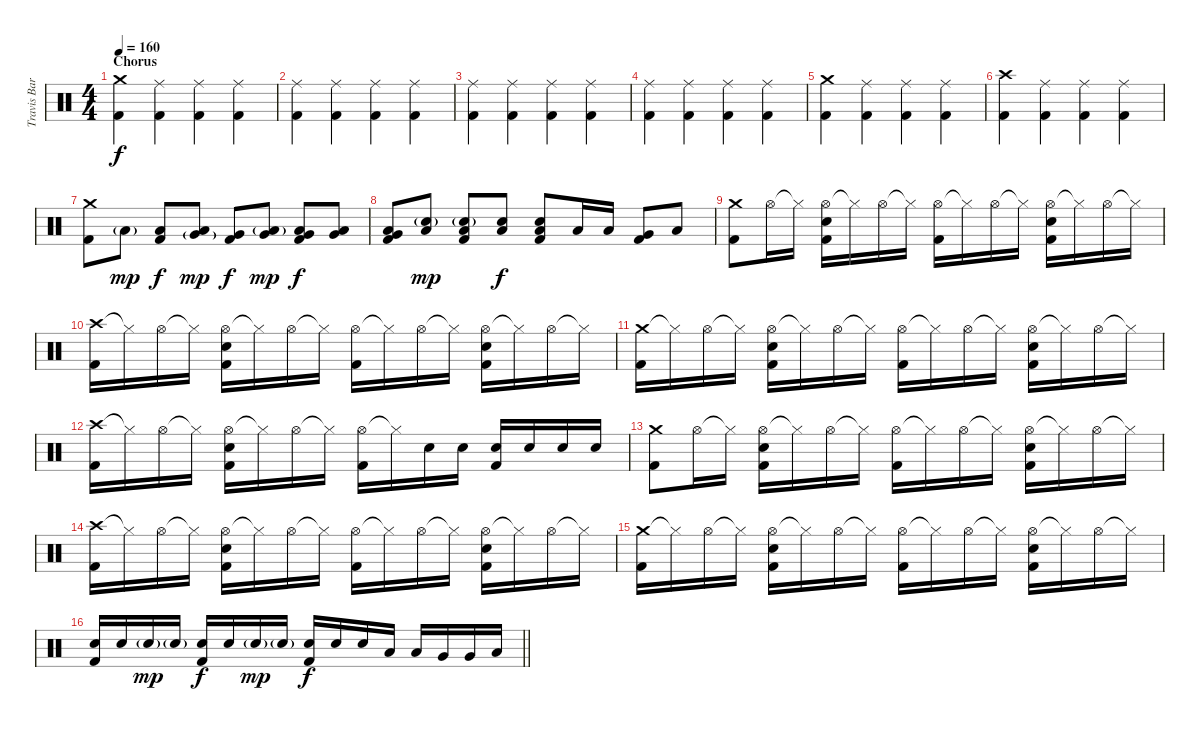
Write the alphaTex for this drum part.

\track ("Travis Barker - Drums" "Travis Bar") {instrument percussion}
\staff {score}
\articulation defaults
\ts (4 4)
\section ("" "Chorus")
\tempo 160
\clef neutral
\ks c
("Crash medium (hit)" "Kick (hit) 2").4{dy f} ("Ride (middle)" "Kick (hit) 2").4 ("Ride (middle)" "Kick (hit) 2").4 ("Ride (middle)" "Kick (hit) 2").4 |
("Ride (middle)" "Kick (hit) 2").4 ("Ride (middle)" "Kick (hit) 2").4 ("Ride (middle)" "Kick (hit) 2").4 ("Ride (middle)" "Kick (hit) 2").4 |
("Ride (middle)" "Kick (hit) 2").4 ("Ride (middle)" "Kick (hit) 2").4 ("Ride (middle)" "Kick (hit) 2").4 ("Ride (middle)" "Kick (hit) 2").4 |
("Ride (middle)" "Kick (hit) 2").4 ("Ride (middle)" "Kick (hit) 2").4 ("Ride (middle)" "Kick (hit) 2").4 ("Ride (middle)" "Kick (hit) 2").4 |
("Crash medium (hit)" "Kick (hit) 2").4 ("Ride (middle)" "Kick (hit) 2").4 ("Ride (middle)" "Kick (hit) 2").4 ("Ride (middle)" "Kick (hit) 2").4 |
("Crash high (hit)" "Kick (hit) 2").4 ("Ride (middle)" "Kick (hit) 2").4 ("Ride (middle)" "Kick (hit) 2").4 ("Ride (middle)" "Kick (hit) 2").4 |
("Crash medium (hit)" "Kick (hit) 2").8 "Low Floor Tom (hit)"{g}.8{dy mp} ("Low Floor Tom (hit)" "Kick (hit) 2").8{dy f} ("Low Floor Tom (hit)" "Very Low Tom (hit)"{g}).8{dy mp} ("Very Low Tom (hit)" "Kick (hit) 2").8{dy f} ("Low Tom (hit)"{g} "Very Low Tom (hit)").8{dy mp} ("Low Tom (hit)" "Very Low Tom (hit)" "Kick (hit) 2").8{dy f} ("Very Low Tom (hit)" "Low Tom (hit)").8 |
("Very Low Tom (hit)" "Low Tom (hit)" "Kick (hit) 2").8 ("Electric Snare (hit)"{g} "Low Tom (hit)").8{dy mp} ("Electric Snare (hit)"{g} "Low Tom (hit)" "Kick (hit) 2").8 ("Electric Snare (hit)" "Low Tom (hit)").8{dy f} ("Electric Snare (hit)" "Low Tom (hit)" "Kick (hit) 2").8 "Low Tom (hit)".16 "Low Tom (hit)".16 ("Very Low Tom (hit)" "Kick (hit) 2").8 "Low Floor Tom (hit)".8 |
("Crash medium (hit)" "Kick (hit) 2").8 "Hi-Hat (open)".16 "Hi-Hat (closed)"{t}.16 ("Hi-Hat (open)" "Electric Snare (hit)" "Kick (hit) 2").16 "Hi-Hat (closed)"{t}.16 "Hi-Hat (open)".16 "Hi-Hat (closed)"{t}.16 ("Hi-Hat (open)" "Kick (hit) 2").16 "Hi-Hat (closed)"{t}.16 "Hi-Hat (open)".16 "Hi-Hat (closed)"{t}.16 ("Hi-Hat (open)" "Electric Snare (hit)" "Kick (hit) 2").16 "Hi-Hat (closed)"{t}.16 "Hi-Hat (open)".16 "Hi-Hat (closed)"{t}.16 |
("Crash high (hit)" "Kick (hit) 2").16 "Hi-Hat (closed)"{t}.16 "Hi-Hat (open)".16 "Hi-Hat (closed)"{t}.16 ("Hi-Hat (open)" "Electric Snare (hit)" "Kick (hit) 2").16 "Hi-Hat (closed)"{t}.16 "Hi-Hat (open)".16 "Hi-Hat (closed)"{t}.16 ("Hi-Hat (open)" "Kick (hit) 2").16 "Hi-Hat (closed)"{t}.16 "Hi-Hat (open)".16 "Hi-Hat (closed)"{t}.16 ("Hi-Hat (open)" "Electric Snare (hit)" "Kick (hit) 2").16 "Hi-Hat (closed)"{t}.16 "Hi-Hat (open)".16 "Hi-Hat (closed)"{t}.16 |
("Crash medium (hit)" "Kick (hit) 2").16 "Hi-Hat (closed)"{t}.16 "Hi-Hat (open)".16 "Hi-Hat (closed)"{t}.16 ("Hi-Hat (open)" "Electric Snare (hit)" "Kick (hit) 2").16 "Hi-Hat (closed)"{t}.16 "Hi-Hat (open)".16 "Hi-Hat (closed)"{t}.16 ("Hi-Hat (open)" "Kick (hit) 2").16 "Hi-Hat (closed)"{t}.16 "Hi-Hat (open)".16 "Hi-Hat (closed)"{t}.16 ("Hi-Hat (open)" "Electric Snare (hit)" "Kick (hit) 2").16 "Hi-Hat (closed)"{t}.16 "Hi-Hat (open)".16 "Hi-Hat (closed)"{t}.16 |
("Crash high (hit)" "Kick (hit) 2").16 "Hi-Hat (closed)"{t}.16 "Hi-Hat (open)".16 "Hi-Hat (closed)"{t}.16 ("Hi-Hat (open)" "Electric Snare (hit)" "Kick (hit) 2").16 "Hi-Hat (closed)"{t}.16 "Hi-Hat (open)".16 "Hi-Hat (closed)"{t}.16 ("Hi-Hat (open)" "Kick (hit) 2").16 "Hi-Hat (closed)"{t}.16 "Electric Snare (hit)".16 "Electric Snare (hit)".16 ("Electric Snare (hit)" "Kick (hit) 2").16 "Electric Snare (hit)".16 "Electric Snare (hit)".16 "Electric Snare (hit)".16 |
("Crash medium (hit)" "Kick (hit) 2").8 "Hi-Hat (open)".16 "Hi-Hat (closed)"{t}.16 ("Hi-Hat (open)" "Electric Snare (hit)" "Kick (hit) 2").16 "Hi-Hat (closed)"{t}.16 "Hi-Hat (open)".16 "Hi-Hat (closed)"{t}.16 ("Hi-Hat (open)" "Kick (hit) 2").16 "Hi-Hat (closed)"{t}.16 "Hi-Hat (open)".16 "Hi-Hat (closed)"{t}.16 ("Hi-Hat (open)" "Electric Snare (hit)" "Kick (hit) 2").16 "Hi-Hat (closed)"{t}.16 "Hi-Hat (open)".16 "Hi-Hat (closed)"{t}.16 |
("Crash high (hit)" "Kick (hit) 2").16 "Hi-Hat (closed)"{t}.16 "Hi-Hat (open)".16 "Hi-Hat (closed)"{t}.16 ("Hi-Hat (open)" "Electric Snare (hit)" "Kick (hit) 2").16 "Hi-Hat (closed)"{t}.16 "Hi-Hat (open)".16 "Hi-Hat (closed)"{t}.16 ("Hi-Hat (open)" "Kick (hit) 2").16 "Hi-Hat (closed)"{t}.16 "Hi-Hat (open)".16 "Hi-Hat (closed)"{t}.16 ("Hi-Hat (open)" "Electric Snare (hit)" "Kick (hit) 2").16 "Hi-Hat (closed)"{t}.16 "Hi-Hat (open)".16 "Hi-Hat (closed)"{t}.16 |
("Crash medium (hit)" "Kick (hit) 2").16 "Hi-Hat (closed)"{t}.16 "Hi-Hat (open)".16 "Hi-Hat (closed)"{t}.16 ("Hi-Hat (open)" "Electric Snare (hit)" "Kick (hit) 2").16 "Hi-Hat (closed)"{t}.16 "Hi-Hat (open)".16 "Hi-Hat (closed)"{t}.16 ("Hi-Hat (open)" "Kick (hit) 2").16 "Hi-Hat (closed)"{t}.16 "Hi-Hat (open)".16 "Hi-Hat (closed)"{t}.16 ("Hi-Hat (open)" "Electric Snare (hit)" "Kick (hit) 2").16 "Hi-Hat (closed)"{t}.16 "Hi-Hat (open)".16 "Hi-Hat (closed)"{t}.16 |
\barLineRight lightlight
("Electric Snare (hit)" "Kick (hit) 2").16 "Electric Snare (hit)".16 "Electric Snare (hit)"{g}.16{dy mp} "Electric Snare (hit)"{g}.16 ("Electric Snare (hit)" "Kick (hit) 2").16{dy f} "Electric Snare (hit)".16 "Electric Snare (hit)"{g}.16{dy mp} "Electric Snare (hit)"{g}.16 ("Electric Snare (hit)" "Kick (hit) 2").16{dy f} "Electric Snare (hit)".16 "Electric Snare (hit)".16 "Low Tom (hit)".16 "Low Tom (hit)".16 "Very Low Tom (hit)".16 "Very Low Tom (hit)".16 "Low Floor Tom (hit)".16
